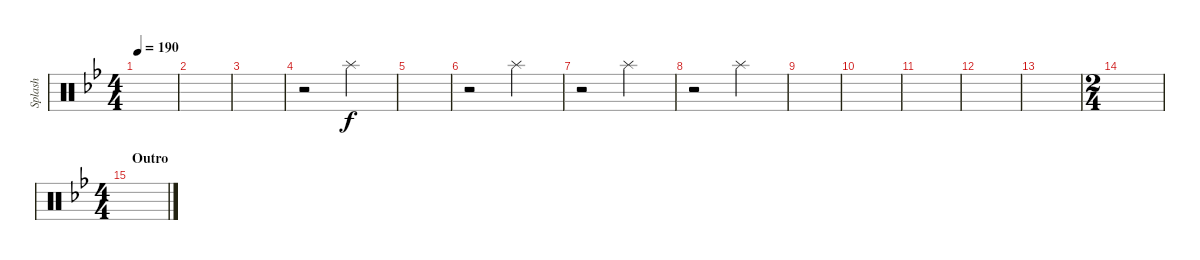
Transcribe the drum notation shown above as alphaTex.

\track ("Splash" "Splash") {instrument percussion}
\staff {score}
\articulation defaults
\ts (4 4)
\tempo 190
\clef neutral
\ks bb
|
|
|
r.2 "Splash (hit)".2 |
|
r.2 "Splash (hit)".2 |
r.2 "Splash (hit)".2 |
r.2 "Splash (hit)".2 |
|
|
|
|
|
\ts (2 4)
|
\ts (4 4)
\section ("" "Outro")
